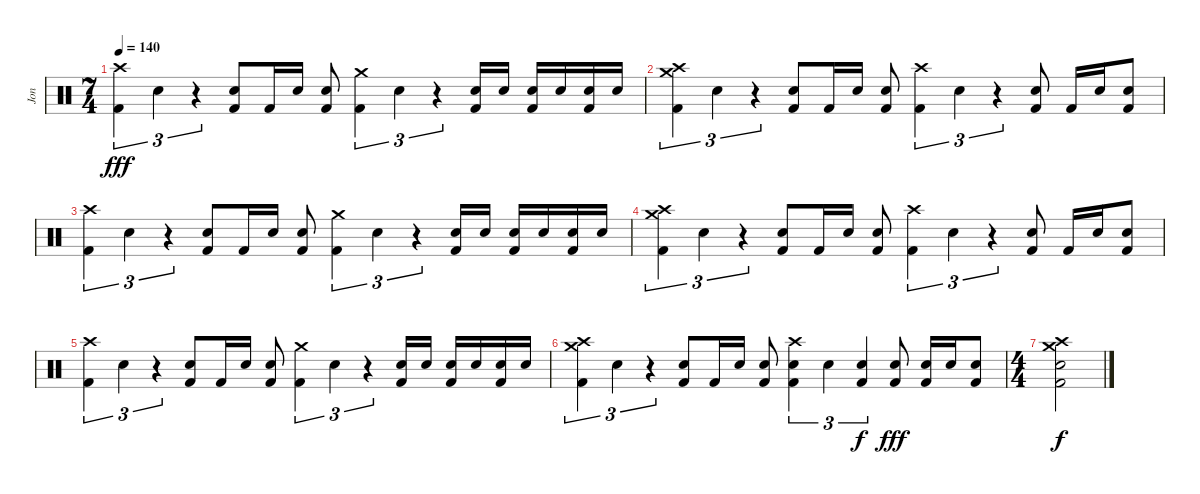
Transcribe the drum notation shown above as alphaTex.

\track ("Jon" "Jon") {instrument percussion}
\staff {score}
\articulation defaults
\ts (7 4)
\tempo 140
\clef neutral
\ks c
("Crash high (hit)" "Kick (hit) 2").4{tu (3 2) dy fff} "Snare (hit) 2".4{tu (3 2)} r.4{tu (3 2)} ("Snare (hit) 2" "Kick (hit) 2").8 "Kick (hit) 2".16 "Electric Snare (hit)".16 ("Snare (hit) 2" "Kick (hit) 2").8 ("Crash medium (hit)" "Kick (hit) 2").4{tu (3 2)} "Snare (hit) 2".4{tu (3 2)} r.4{tu (3 2)} ("Snare (hit) 2" "Kick (hit) 2").16 "Electric Snare (hit)".16 ("Snare (hit) 2" "Kick (hit) 2").16 "Electric Snare (hit)".16 ("Snare (hit) 2" "Kick (hit) 2").16 "Electric Snare (hit)".16 |
("Crash medium (hit)" "Crash high (hit)" "Kick (hit) 2").4{tu (3 2)} "Snare (hit) 2".4{tu (3 2)} r.4{tu (3 2)} ("Snare (hit) 2" "Kick (hit) 2").8 "Kick (hit) 2".16 "Electric Snare (hit)".16 ("Snare (hit) 2" "Kick (hit) 2").8 ("Crash high (hit)" "Kick (hit) 2").4{tu (3 2)} "Snare (hit) 2".4{tu (3 2)} r.4{tu (3 2)} ("Snare (hit) 2" "Kick (hit) 2").8 "Kick (hit) 2".16 "Electric Snare (hit)".16 ("Snare (hit) 2" "Kick (hit) 2").8 |
("Crash high (hit)" "Kick (hit) 2").4{tu (3 2)} "Snare (hit) 2".4{tu (3 2)} r.4{tu (3 2)} ("Snare (hit) 2" "Kick (hit) 2").8 "Kick (hit) 2".16 "Electric Snare (hit)".16 ("Snare (hit) 2" "Kick (hit) 2").8 ("Crash medium (hit)" "Kick (hit) 2").4{tu (3 2)} "Snare (hit) 2".4{tu (3 2)} r.4{tu (3 2)} ("Snare (hit) 2" "Kick (hit) 2").16 "Electric Snare (hit)".16 ("Snare (hit) 2" "Kick (hit) 2").16 "Electric Snare (hit)".16 ("Snare (hit) 2" "Kick (hit) 2").16 "Electric Snare (hit)".16 |
("Crash medium (hit)" "Crash high (hit)" "Kick (hit) 2").4{tu (3 2)} "Snare (hit) 2".4{tu (3 2)} r.4{tu (3 2)} ("Snare (hit) 2" "Kick (hit) 2").8 "Kick (hit) 2".16 "Electric Snare (hit)".16 ("Snare (hit) 2" "Kick (hit) 2").8 ("Crash high (hit)" "Kick (hit) 2").4{tu (3 2)} "Snare (hit) 2".4{tu (3 2)} r.4{tu (3 2)} ("Snare (hit) 2" "Kick (hit) 2").8 "Kick (hit) 2".16 "Electric Snare (hit)".16 ("Snare (hit) 2" "Kick (hit) 2").8 |
("Crash high (hit)" "Kick (hit) 2").4{tu (3 2)} "Snare (hit) 2".4{tu (3 2)} r.4{tu (3 2)} ("Snare (hit) 2" "Kick (hit) 2").8 "Kick (hit) 2".16 "Electric Snare (hit)".16 ("Snare (hit) 2" "Kick (hit) 2").8 ("Crash medium (hit)" "Kick (hit) 2").4{tu (3 2)} "Snare (hit) 2".4{tu (3 2)} r.4{tu (3 2)} ("Snare (hit) 2" "Kick (hit) 2").16 "Electric Snare (hit)".16 ("Snare (hit) 2" "Kick (hit) 2").16 "Electric Snare (hit)".16 ("Snare (hit) 2" "Kick (hit) 2").16 "Electric Snare (hit)".16 |
("Crash medium (hit)" "Crash high (hit)" "Kick (hit) 2").4{tu (3 2)} "Snare (hit) 2".4{tu (3 2)} r.4{tu (3 2)} ("Snare (hit) 2" "Kick (hit) 2").8 "Kick (hit) 2".16 "Electric Snare (hit)".16 ("Snare (hit) 2" "Kick (hit) 2").8 ("Crash high (hit)" "Electric Snare (hit)" "Kick (hit) 2").4{tu (3 2)} "Snare (hit) 2".4{tu (3 2)} ("Electric Snare (hit)" "Kick (hit) 2").4{tu (3 2) dy f} ("Snare (hit) 2" "Kick (hit) 2").8{dy fff} ("Electric Snare (hit)" "Kick (hit) 2").16 "Electric Snare (hit)".16 ("Snare (hit) 2" "Kick (hit) 2").8 |
\ts (4 4)
("Crash medium (hit)" "Crash high (hit)" "Snare (hit) 2" "Kick (hit) 2").2{dy f}
